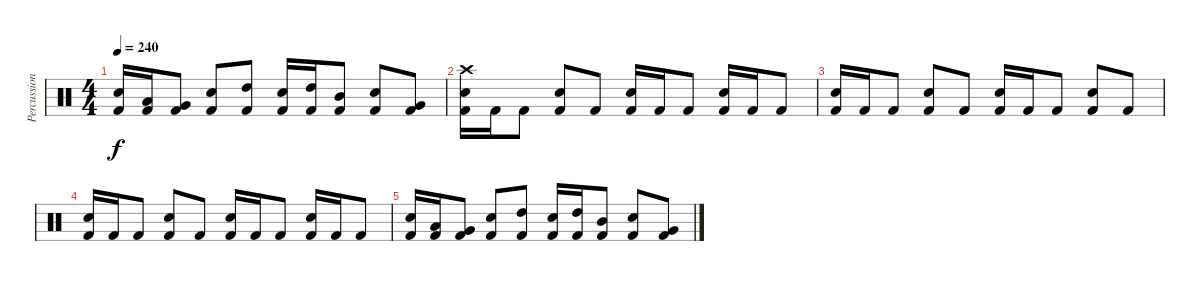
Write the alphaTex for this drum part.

\track ("Percussion" "Percussion") {mute instrument percussion}
\staff {score}
\articulation defaults
\ts (4 4)
\tempo 240
\clef neutral
\ks c
("Electric Snare (hit)" "Kick (hit) 2").16{dy f} ("Low Tom (hit)" "Kick (hit) 2").16 ("Very Low Tom (hit)" "Kick (hit) 2").8 ("Electric Snare (hit)" "Kick (hit) 2").8 ("High Tom (hit)" "Kick (hit) 2").8 ("Electric Snare (hit)" "Kick (hit) 2").16 ("High Tom (hit)" "Kick (hit) 2").16 ("Mid Tom (hit)" "Kick (hit) 2").8 ("Electric Snare (hit)" "Kick (hit) 2").8 ("Very Low Tom (hit)" "Kick (hit) 2").8 |
("Crash high (hit)" "Electric Snare (hit)" "Kick (hit) 2").16 "Kick (hit) 2".16 "Kick (hit) 2".8 ("Electric Snare (hit)" "Kick (hit) 2").8 "Kick (hit) 2".8 ("Electric Snare (hit)" "Kick (hit) 2").16 "Kick (hit) 2".16 "Kick (hit) 2".8 ("Electric Snare (hit)" "Kick (hit) 2").16 "Kick (hit) 2".16 "Kick (hit) 2".8 |
("Electric Snare (hit)" "Kick (hit) 2").16 "Kick (hit) 2".16 "Kick (hit) 2".8 ("Electric Snare (hit)" "Kick (hit) 2").8 "Kick (hit) 2".8 ("Electric Snare (hit)" "Kick (hit) 2").16 "Kick (hit) 2".16 "Kick (hit) 2".8 ("Electric Snare (hit)" "Kick (hit) 2").8 "Kick (hit) 2".8 |
("Electric Snare (hit)" "Kick (hit) 2").16 "Kick (hit) 2".16 "Kick (hit) 2".8 ("Electric Snare (hit)" "Kick (hit) 2").8 "Kick (hit) 2".8 ("Electric Snare (hit)" "Kick (hit) 2").16 "Kick (hit) 2".16 "Kick (hit) 2".8 ("Electric Snare (hit)" "Kick (hit) 2").16 "Kick (hit) 2".16 "Kick (hit) 2".8 |
("Electric Snare (hit)" "Kick (hit) 2").16 ("Low Tom (hit)" "Kick (hit) 2").16 ("Very Low Tom (hit)" "Kick (hit) 2").8 ("Electric Snare (hit)" "Kick (hit) 2").8 ("High Tom (hit)" "Kick (hit) 2").8 ("Electric Snare (hit)" "Kick (hit) 2").16 ("High Tom (hit)" "Kick (hit) 2").16 ("Mid Tom (hit)" "Kick (hit) 2").8 ("Electric Snare (hit)" "Kick (hit) 2").8 ("Very Low Tom (hit)" "Kick (hit) 2").8
